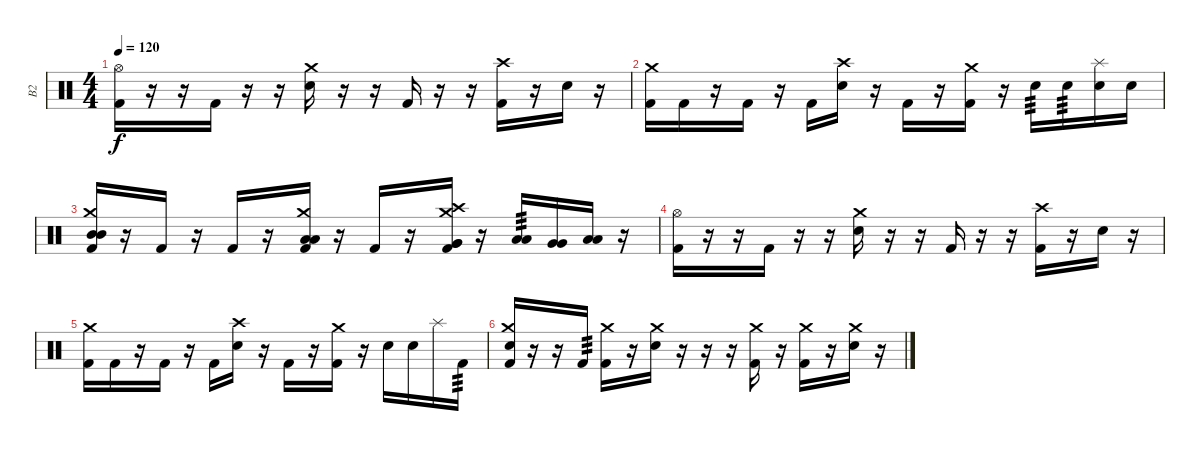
\track ("В2" "В2") {instrument percussion}
\staff {score}
\articulation defaults
\ts (4 4)
\tempo 120
\clef neutral
\ks c
("Hi-Hat (open)" "Kick (hit) 2").16{dy f} r.16 r.16 "Kick (hit) 2".16 r.16 r.16 ("Crash medium (hit)" "Snare (hit) 2").16 r.16 r.16 "Kick (hit) 2".16 r.16 r.16 ("Crash high (hit)" "Kick (hit) 2").16 r.16 "Snare (hit) 2".16 r.16 |
("Crash medium (hit)" "Kick (hit) 2").16 "Kick (hit) 2".16 r.16 "Kick (hit) 2".16 r.16 "Kick (hit) 2".16 ("Crash high (hit)" "Snare (hit) 2").16 r.16 "Kick (hit) 2".16 r.16 ("Crash medium (hit)" "Kick (hit) 2").16 r.16 "Snare (hit) 2".16{tp 3} "Snare (hit) 2".16{tp 3} ("Splash (hit)" "Snare (hit) 2").16 "Snare (hit) 2".16 |
("Crash medium (hit)" "Mid Tom (hit)" "Mid Tom (hit)" "Kick (hit) 2").16 r.16 "Kick (hit) 2".16 r.16 "Kick (hit) 2".16 r.16 ("Crash medium (hit)" "Low Tom (hit)" "Low Tom (hit)" "Kick (hit) 2").16 r.16 "Kick (hit) 2".16 r.16 ("Crash high (hit)" "Crash medium (hit)" "Very Low Tom (hit)" "Very Low Tom (hit)" "Kick (hit) 2").16 r.16 ("Low Tom (hit)" "Low Tom (hit)").16{tp 3} ("Very Low Tom (hit)" "Very Low Tom (hit)").16 ("Low Floor Tom (hit)" "Low Floor Tom (hit)").16 r.16 |
("Hi-Hat (open)" "Kick (hit) 2").16 r.16 r.16 "Kick (hit) 2".16 r.16 r.16 ("Crash medium (hit)" "Snare (hit) 2").16 r.16 r.16 "Kick (hit) 2".16 r.16 r.16 ("Crash high (hit)" "Kick (hit) 2").16 r.16 "Snare (hit) 2".16 r.16 |
("Crash medium (hit)" "Kick (hit) 2").16 "Kick (hit) 2".16 r.16 "Kick (hit) 2".16 r.16 "Kick (hit) 2".16 ("Crash high (hit)" "Snare (hit) 2").16 r.16 "Kick (hit) 2".16 r.16 ("Crash medium (hit)" "Kick (hit) 2").16 r.16 "Snare (hit) 2".16 "Snare (hit) 2".16 "Splash (hit)".16 "Kick (hit) 2".16{tp 3} |
("Crash medium (hit)" "Snare (hit) 2" "Kick (hit) 2").16 r.16 r.16 "Kick (hit) 2".16{tp 3} ("Crash medium (hit)" "Kick (hit) 2").16 r.16 ("Crash medium (hit)" "Snare (hit) 2").16 r.16 r.16 r.16 ("Crash medium (hit)" "Kick (hit) 2").16 r.16 ("Crash medium (hit)" "Kick (hit) 2").16 r.16 ("Crash medium (hit)" "Snare (hit) 2").16 r.16
